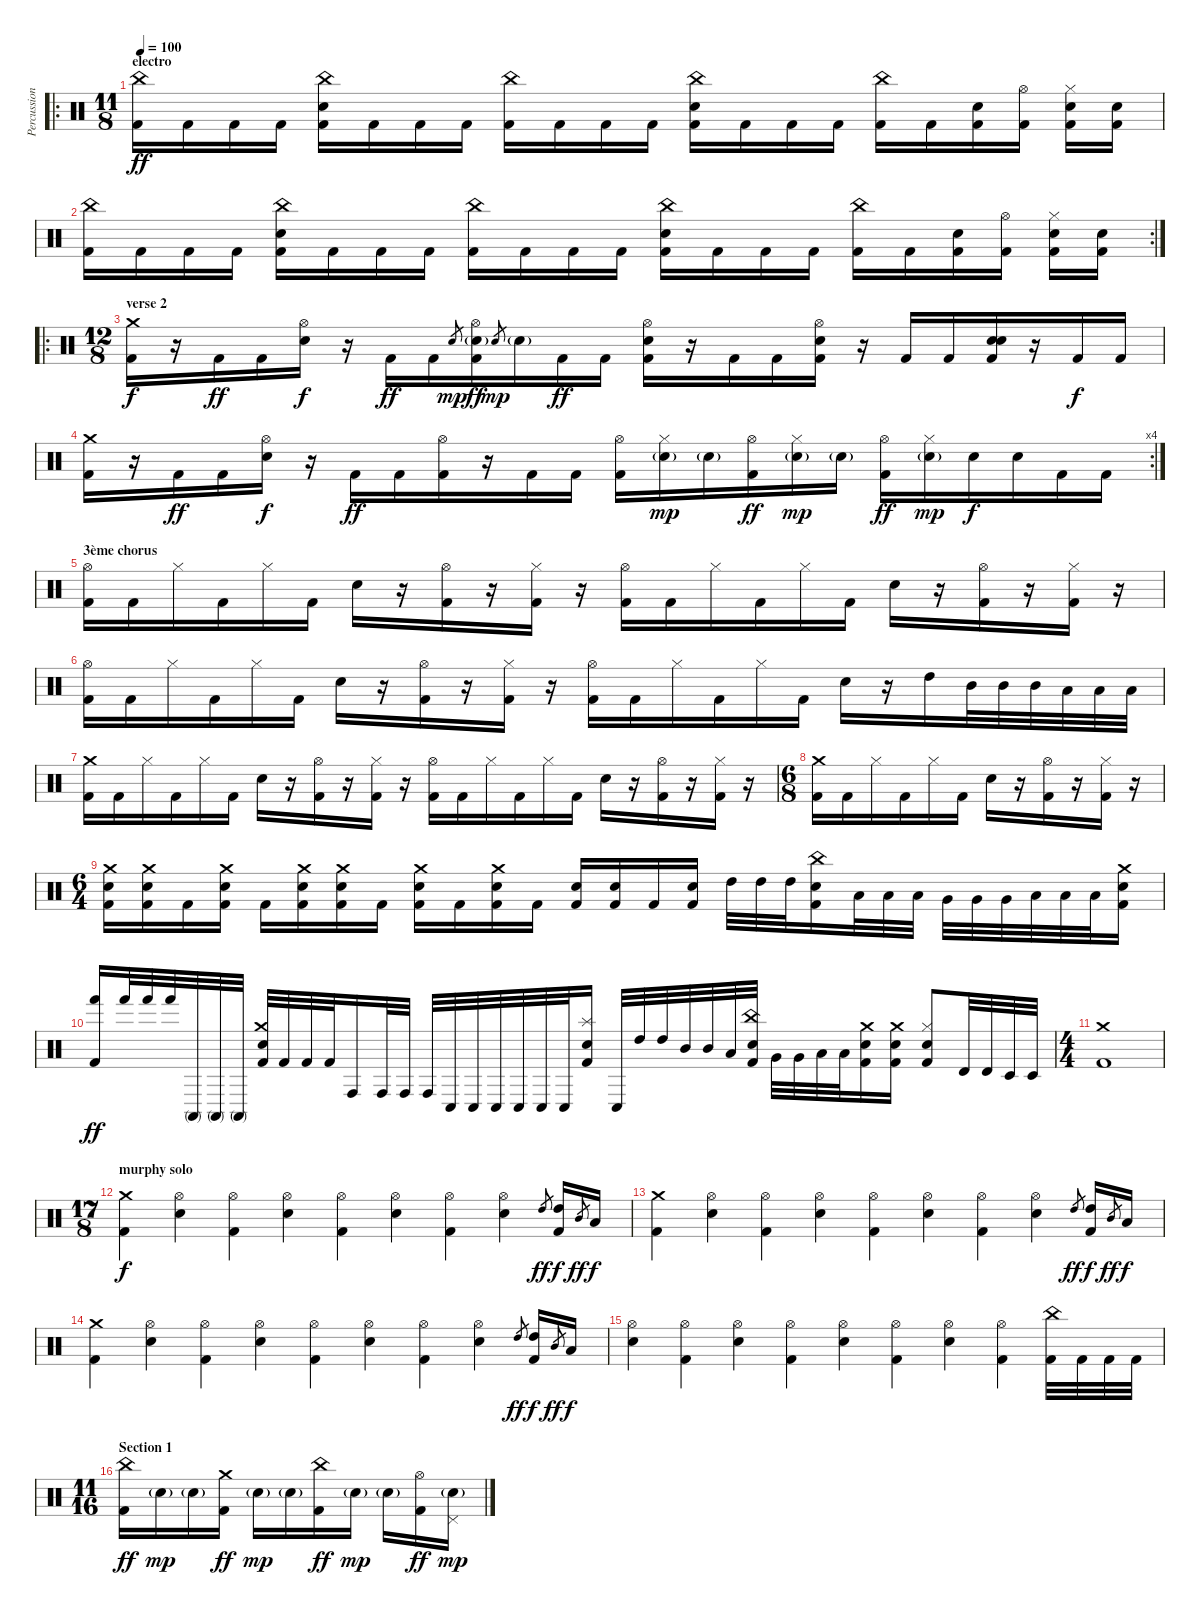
\track ("Percussions" "Percussion") {instrument percussion}
\staff {score}
\articulation defaults
\ro
\ts (11 8)
\section ("" "electro")
\tempo 100
\clef neutral
\ks c
("China (hit)" "Kick (hit) 2").16{dy ff} "Kick (hit) 2".16 "Kick (hit) 2".16 "Kick (hit) 2".16 ("China (hit)" "Electric Snare (hit)" "Kick (hit) 2").16 "Kick (hit) 2".16 "Kick (hit) 2".16 "Kick (hit) 2".16 ("China (hit)" "Kick (hit) 2").16 "Kick (hit) 2".16 "Kick (hit) 2".16 "Kick (hit) 2".16 ("China (hit)" "Electric Snare (hit)" "Kick (hit) 2").16 "Kick (hit) 2".16 "Kick (hit) 2".16 "Kick (hit) 2".16 ("China (hit)" "Kick (hit) 2").16 "Kick (hit) 2".16 ("Electric Snare (hit)" "Kick (hit) 2").16 ("Hi-Hat (open)" "Kick (hit) 2").16 ("Hi-Hat (closed)" "Electric Snare (hit)" "Kick (hit) 2").16 ("Electric Snare (hit)" "Kick (hit) 2").16 |
\rc 2
("China (hit)" "Kick (hit) 2").16 "Kick (hit) 2".16 "Kick (hit) 2".16 "Kick (hit) 2".16 ("China (hit)" "Electric Snare (hit)" "Kick (hit) 2").16 "Kick (hit) 2".16 "Kick (hit) 2".16 "Kick (hit) 2".16 ("China (hit)" "Kick (hit) 2").16 "Kick (hit) 2".16 "Kick (hit) 2".16 "Kick (hit) 2".16 ("China (hit)" "Electric Snare (hit)" "Kick (hit) 2").16 "Kick (hit) 2".16 "Kick (hit) 2".16 "Kick (hit) 2".16 ("China (hit)" "Kick (hit) 2").16 "Kick (hit) 2".16 ("Electric Snare (hit)" "Kick (hit) 2").16 ("Hi-Hat (open)" "Kick (hit) 2").16 ("Hi-Hat (closed)" "Electric Snare (hit)" "Kick (hit) 2").16 ("Electric Snare (hit)" "Kick (hit) 2").16 |
\ro
\ts (12 8)
\section ("" "verse 2")
("Crash medium (hit)" "Kick (hit) 2").16{dy f} r.16 "Kick (hit) 2".16{dy ff} "Kick (hit) 2".16 ("Hi-Hat (open)" "Electric Snare (hit)").16{dy f} r.16 "Kick (hit) 2".16{dy ff} "Kick (hit) 2".16 "Electric Snare (hit)".8{gr dy mp} ("Hi-Hat (open)" "Electric Snare (hit)"{g} "Kick (hit) 2").16{dy ff} "Electric Snare (hit)".8{gr dy mp} "Electric Snare (hit)"{g}.16 "Kick (hit) 2".16{dy ff} "Kick (hit) 2".16 ("Hi-Hat (open)" "Electric Snare (hit)" "Kick (hit) 2").16 r.16 "Kick (hit) 2".16 "Kick (hit) 2".16 ("Hi-Hat (open)" "Electric Snare (hit)" "Kick (hit) 2").16 r.16 "Kick (hit) 2".16 "Kick (hit) 2".16 ("Electric Snare (hit)" "Electric Snare (hit)" "Kick (hit) 2").16 r.16 "Kick (hit) 2".16{dy f} "Kick (hit) 2".16 |
\rc 4
("Crash medium (hit)" "Kick (hit) 2").16 r.16 "Kick (hit) 2".16{dy ff} "Kick (hit) 2".16 ("Hi-Hat (open)" "Electric Snare (hit)").16{dy f} r.16 "Kick (hit) 2".16{dy ff} "Kick (hit) 2".16 ("Hi-Hat (open)" "Kick (hit) 2").16 r.16 "Kick (hit) 2".16 "Kick (hit) 2".16 ("Hi-Hat (open)" "Kick (hit) 2").16 ("Hi-Hat (closed)" "Electric Snare (hit)"{g}).16{dy mp} "Electric Snare (hit)"{g}.16 ("Hi-Hat (open)" "Kick (hit) 2").16{dy ff} ("Hi-Hat (closed)" "Electric Snare (hit)"{g}).16{dy mp} "Electric Snare (hit)"{g}.16 ("Hi-Hat (open)" "Kick (hit) 2").16{dy ff} ("Hi-Hat (closed)" "Electric Snare (hit)"{g}).16{dy mp} "Electric Snare (hit)".16{dy f} "Electric Snare (hit)".16 "Kick (hit) 2".16 "Kick (hit) 2".16 |
\section ("" "3ème chorus")
("Hi-Hat (open)" "Kick (hit) 2").16 "Kick (hit) 2".16 "Hi-Hat (closed)".16 "Kick (hit) 2".16 "Hi-Hat (closed)".16 "Kick (hit) 2".16 "Electric Snare (hit)".16 r.16 ("Hi-Hat (open)" "Kick (hit) 2").16 r.16 ("Hi-Hat (closed)" "Kick (hit) 2").16 r.16 ("Hi-Hat (open)" "Kick (hit) 2").16 "Kick (hit) 2".16 "Hi-Hat (closed)".16 "Kick (hit) 2".16 "Hi-Hat (closed)".16 "Kick (hit) 2".16 "Electric Snare (hit)".16 r.16 ("Hi-Hat (open)" "Kick (hit) 2").16 r.16 ("Hi-Hat (closed)" "Kick (hit) 2").16 r.16 |
("Hi-Hat (open)" "Kick (hit) 2").16 "Kick (hit) 2".16 "Hi-Hat (closed)".16 "Kick (hit) 2".16 "Hi-Hat (closed)".16 "Kick (hit) 2".16 "Electric Snare (hit)".16 r.16 ("Hi-Hat (open)" "Kick (hit) 2").16 r.16 ("Hi-Hat (closed)" "Kick (hit) 2").16 r.16 ("Hi-Hat (open)" "Kick (hit) 2").16 "Kick (hit) 2".16 "Hi-Hat (closed)".16 "Kick (hit) 2".16 "Hi-Hat (closed)".16 "Kick (hit) 2".16 "Electric Snare (hit)".16 r.16 "High Tom (hit)".16 "Mid Tom (hit)".32 "Mid Tom (hit)".32 "Mid Tom (hit)".32 "Low Tom (hit)".32 "Low Tom (hit)".32 "Low Tom (hit)".32 |
("Crash medium (hit)" "Kick (hit) 2").16 "Kick (hit) 2".16 "Hi-Hat (closed)".16 "Kick (hit) 2".16 "Hi-Hat (closed)".16 "Kick (hit) 2".16 "Electric Snare (hit)".16 r.16 ("Hi-Hat (open)" "Kick (hit) 2").16 r.16 ("Hi-Hat (closed)" "Kick (hit) 2").16 r.16 ("Hi-Hat (open)" "Kick (hit) 2").16 "Kick (hit) 2".16 "Hi-Hat (closed)".16 "Kick (hit) 2".16 "Hi-Hat (closed)".16 "Kick (hit) 2".16 "Electric Snare (hit)".16 r.16 ("Hi-Hat (open)" "Kick (hit) 2").16 r.16 ("Hi-Hat (closed)" "Kick (hit) 2").16 r.16 |
\ts (6 8)
("Crash medium (hit)" "Kick (hit) 2").16 "Kick (hit) 2".16 "Hi-Hat (closed)".16 "Kick (hit) 2".16 "Hi-Hat (closed)".16 "Kick (hit) 2".16 "Electric Snare (hit)".16 r.16 ("Hi-Hat (open)" "Kick (hit) 2").16 r.16 ("Hi-Hat (closed)" "Kick (hit) 2").16 r.16 |
\ts (6 4)
("Crash medium (hit)" "Electric Snare (hit)" "Kick (hit) 2").16 ("Crash medium (hit)" "Electric Snare (hit)" "Kick (hit) 2").16 "Kick (hit) 2".16 ("Crash medium (hit)" "Electric Snare (hit)" "Kick (hit) 2").16 "Kick (hit) 2".16 ("Crash medium (hit)" "Electric Snare (hit)" "Kick (hit) 2").16 ("Crash medium (hit)" "Electric Snare (hit)" "Kick (hit) 2").16 "Kick (hit) 2".16 ("Crash medium (hit)" "Electric Snare (hit)" "Kick (hit) 2").16 "Kick (hit) 2".16 ("Crash medium (hit)" "Electric Snare (hit)" "Kick (hit) 2").16 "Kick (hit) 2".16 ("Electric Snare (hit)" "Kick (hit) 2").16 ("Electric Snare (hit)" "Kick (hit) 2").16 "Kick (hit) 2".16 ("Electric Snare (hit)" "Kick (hit) 2").16 "High Tom (hit)".32 "High Tom (hit)".32 "High Tom (hit)".32 ("China (hit)" "Electric Snare (hit)" "Kick (hit) 2").16 "Low Tom (hit)".32 "Low Tom (hit)".32 "Low Tom (hit)".32 "Very Low Tom (hit)".32 "Very Low Tom (hit)".32 "Very Low Tom (hit)".32 "Low Floor Tom (hit)".32 "Low Floor Tom (hit)".32 "Low Floor Tom (hit)".32 ("Crash medium (hit)" "Electric Snare (hit)" "Kick (hit) 2").16 |
("Kick (hit) 2" "Hand (hit)").16{dy ff} "Hand (hit)".32 "Hand (hit)".32 "Hand (hit)".32 "Conga high (mute)".32 "Conga high (mute)".32 "Conga high (mute)".32 ("Crash medium (hit)" "Electric Snare (hit)" "Kick (hit) 2").32 "Kick (hit) 2".32 "Kick (hit) 2".32 "Kick (hit) 2".32 "Conga high (hit)".16 "Conga high (hit)".32 "Conga high (hit)".32 "Conga high (hit)".32 "Conga low (hit)".32 "Conga low (hit)".32 "Conga low (hit)".32 "Conga low (hit)".32 "Conga low (hit)".32 "Conga low (hit)".32 ("Splash (hit)" "Electric Snare (hit)" "Kick (hit) 2").16 "Conga low (hit)".32 "High Tom (hit)".32 "High Tom (hit)".32 "Mid Tom (hit)".32 "Mid Tom (hit)".32 "Low Tom (hit)".32 ("China (hit)" "Electric Snare (hit)" "Kick (hit) 2").32 "Very Low Tom (hit)".32 "Very Low Tom (hit)".32 "Low Floor Tom (hit)".32 "Low Floor Tom (hit)".32 ("Crash medium (hit)" "Electric Snare (hit)" "Kick (hit) 2").16 ("Crash medium (hit)" "Electric Snare (hit)" "Kick (hit) 2").16 ("Hi-Hat (closed)" "Electric Snare (hit)" "Kick (hit) 2").8 "Timbale high (hit)".32 "Timbale high (hit)".32 "Timbale low (hit)".32 "Timbale low (hit)".32 |
\ts (4 4)
("Crash medium (hit)" "Kick (hit) 2").1 |
\ts (17 8)
\section ("" "murphy solo")
("Crash medium (hit)" "Kick (hit) 2").4{dy f} ("Hi-Hat (open)" "Electric Snare (hit)").4 ("Hi-Hat (open)" "Kick (hit) 2").4 ("Hi-Hat (open)" "Electric Snare (hit)").4 ("Hi-Hat (open)" "Kick (hit) 2").4 ("Hi-Hat (open)" "Electric Snare (hit)").4 ("Hi-Hat (open)" "Kick (hit) 2").4 ("Hi-Hat (open)" "Electric Snare (hit)").4 "High Tom (hit)".8{gr dy ff} ("High Tom (hit)" "Kick (hit) 2").16{dy f} "Mid Tom (hit)".8{gr dy ff} "Low Tom (hit)".16{dy f} |
("Crash medium (hit)" "Kick (hit) 2").4 ("Hi-Hat (open)" "Electric Snare (hit)").4 ("Hi-Hat (open)" "Kick (hit) 2").4 ("Hi-Hat (open)" "Electric Snare (hit)").4 ("Hi-Hat (open)" "Kick (hit) 2").4 ("Hi-Hat (open)" "Electric Snare (hit)").4 ("Hi-Hat (open)" "Kick (hit) 2").4 ("Hi-Hat (open)" "Electric Snare (hit)").4 "High Tom (hit)".8{gr dy ff} ("High Tom (hit)" "Kick (hit) 2").16{dy f} "Mid Tom (hit)".8{gr dy ff} "Low Tom (hit)".16{dy f} |
("Crash medium (hit)" "Kick (hit) 2").4 ("Hi-Hat (open)" "Electric Snare (hit)").4 ("Hi-Hat (open)" "Kick (hit) 2").4 ("Hi-Hat (open)" "Electric Snare (hit)").4 ("Hi-Hat (open)" "Kick (hit) 2").4 ("Hi-Hat (open)" "Electric Snare (hit)").4 ("Hi-Hat (open)" "Kick (hit) 2").4 ("Hi-Hat (open)" "Electric Snare (hit)").4 "High Tom (hit)".8{gr dy ff} ("High Tom (hit)" "Kick (hit) 2").16{dy f} "Mid Tom (hit)".8{gr dy ff} "Low Tom (hit)".16{dy f} |
("Hi-Hat (open)" "Electric Snare (hit)").4 ("Hi-Hat (open)" "Kick (hit) 2").4 ("Hi-Hat (open)" "Electric Snare (hit)").4 ("Hi-Hat (open)" "Kick (hit) 2").4 ("Hi-Hat (open)" "Electric Snare (hit)").4 ("Hi-Hat (open)" "Kick (hit) 2").4 ("Hi-Hat (open)" "Electric Snare (hit)").4 ("Hi-Hat (open)" "Kick (hit) 2").4 ("China (hit)" "Kick (hit) 2").32 "Kick (hit) 2".32 "Kick (hit) 2".32 "Kick (hit) 2".32 |
\ts (11 16)
\section ("" "Section 1")
("China (hit)" "Kick (hit) 2").16{dy ff} "Electric Snare (hit)"{g}.16{dy mp} "Electric Snare (hit)"{g}.16 ("Crash medium (hit)" "Kick (hit) 2").16{dy ff} "Electric Snare (hit)"{g}.16{dy mp} "Electric Snare (hit)"{g}.16 ("China (hit)" "Kick (hit) 2").16{dy ff} "Electric Snare (hit)"{g}.16{dy mp} "Electric Snare (hit)"{g}.16 ("Hi-Hat (open)" "Kick (hit) 2").16{dy ff} ("Pedal Hi-Hat (hit)" "Electric Snare (hit)"{g}).16{dy mp}
